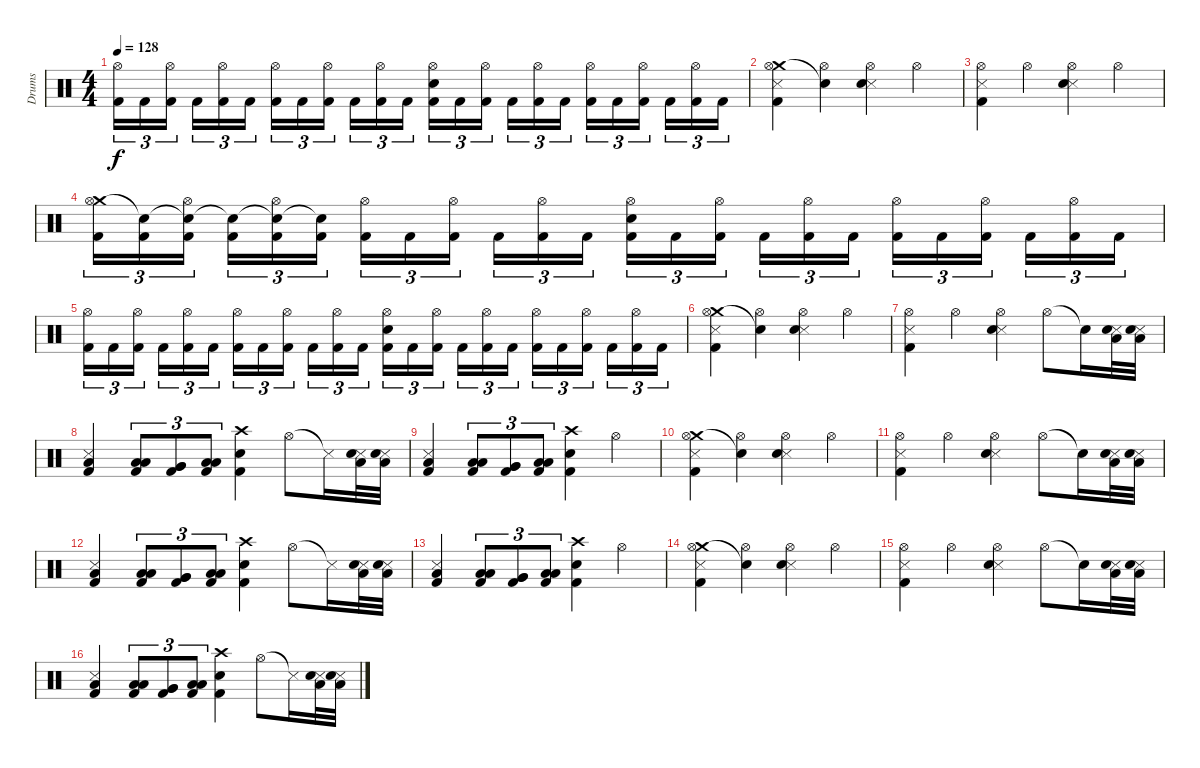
\track ("Drums" "Drums") {instrument percussion}
\staff {score}
\articulation defaults
\ts (4 4)
\tempo 128
\clef neutral
\ks c
("Hi-Hat (open)" "Kick (hit) 2").16{tu (3 2) dy f} "Kick (hit) 2".16{tu (3 2)} ("Hi-Hat (open)" "Kick (hit) 2").16{tu (3 2) beam splitsecondary} "Kick (hit) 2".16{tu (3 2)} ("Hi-Hat (open)" "Kick (hit) 2").16{tu (3 2)} "Kick (hit) 2".16{tu (3 2)} ("Hi-Hat (open)" "Kick (hit) 2").16{tu (3 2)} "Kick (hit) 2".16{tu (3 2)} ("Hi-Hat (open)" "Kick (hit) 2").16{tu (3 2) beam splitsecondary} "Kick (hit) 2".16{tu (3 2)} ("Hi-Hat (open)" "Kick (hit) 2").16{tu (3 2)} "Kick (hit) 2".16{tu (3 2)} ("Hi-Hat (open)" "Electric Snare (hit)" "Kick (hit) 2").16{tu (3 2)} "Kick (hit) 2".16{tu (3 2)} ("Hi-Hat (open)" "Kick (hit) 2").16{tu (3 2) beam splitsecondary} "Kick (hit) 2".16{tu (3 2)} ("Hi-Hat (open)" "Kick (hit) 2").16{tu (3 2)} "Kick (hit) 2".16{tu (3 2)} ("Hi-Hat (open)" "Kick (hit) 2").16{tu (3 2)} "Kick (hit) 2".16{tu (3 2)} ("Hi-Hat (open)" "Kick (hit) 2").16{tu (3 2) beam splitsecondary} "Kick (hit) 2".16{tu (3 2)} ("Hi-Hat (open)" "Kick (hit) 2").16{tu (3 2)} "Kick (hit) 2".16{tu (3 2)} |
("Crash medium (hit)" "Snare (side stick) 3" "Hi-Hat (open)" "Kick (hit) 2").4 ("Snare (hit)"{t} "Hi-Hat (open)").4 ("Snare (side stick) 3" "Hi-Hat (open)" "Electric Snare (hit)").4 "Hi-Hat (open)".4 |
("Snare (side stick) 3" "Hi-Hat (open)" "Kick (hit) 2").4 "Hi-Hat (open)".4 ("Snare (side stick) 3" "Hi-Hat (open)" "Electric Snare (hit)").4 "Hi-Hat (open)".4 |
("Crash medium (hit)" "Hi-Hat (open)" "Kick (hit) 2").16{tu (3 2)} ("Snare (hit)"{t} "Kick (hit) 2").16{tu (3 2)} ("Snare (hit)"{t} "Hi-Hat (open)" "Kick (hit) 2").16{tu (3 2) beam splitsecondary} ("Snare (hit)"{t} "Kick (hit) 2").16{tu (3 2)} ("Snare (hit)"{t} "Hi-Hat (open)" "Kick (hit) 2").16{tu (3 2)} ("Snare (hit)"{t} "Kick (hit) 2").16{tu (3 2)} ("Hi-Hat (open)" "Kick (hit) 2").16{tu (3 2)} "Kick (hit) 2".16{tu (3 2)} ("Hi-Hat (open)" "Kick (hit) 2").16{tu (3 2) beam splitsecondary} "Kick (hit) 2".16{tu (3 2)} ("Hi-Hat (open)" "Kick (hit) 2").16{tu (3 2)} "Kick (hit) 2".16{tu (3 2)} ("Hi-Hat (open)" "Electric Snare (hit)" "Kick (hit) 2").16{tu (3 2)} "Kick (hit) 2".16{tu (3 2)} ("Hi-Hat (open)" "Kick (hit) 2").16{tu (3 2) beam splitsecondary} "Kick (hit) 2".16{tu (3 2)} ("Hi-Hat (open)" "Kick (hit) 2").16{tu (3 2)} "Kick (hit) 2".16{tu (3 2)} ("Hi-Hat (open)" "Kick (hit) 2").16{tu (3 2)} "Kick (hit) 2".16{tu (3 2)} ("Hi-Hat (open)" "Kick (hit) 2").16{tu (3 2) beam splitsecondary} "Kick (hit) 2".16{tu (3 2)} ("Hi-Hat (open)" "Kick (hit) 2").16{tu (3 2)} "Kick (hit) 2".16{tu (3 2)} |
("Hi-Hat (open)" "Kick (hit) 2").16{tu (3 2)} "Kick (hit) 2".16{tu (3 2)} ("Hi-Hat (open)" "Kick (hit) 2").16{tu (3 2) beam splitsecondary} "Kick (hit) 2".16{tu (3 2)} ("Hi-Hat (open)" "Kick (hit) 2").16{tu (3 2)} "Kick (hit) 2".16{tu (3 2)} ("Hi-Hat (open)" "Kick (hit) 2").16{tu (3 2)} "Kick (hit) 2".16{tu (3 2)} ("Hi-Hat (open)" "Kick (hit) 2").16{tu (3 2) beam splitsecondary} "Kick (hit) 2".16{tu (3 2)} ("Hi-Hat (open)" "Kick (hit) 2").16{tu (3 2)} "Kick (hit) 2".16{tu (3 2)} ("Hi-Hat (open)" "Electric Snare (hit)" "Kick (hit) 2").16{tu (3 2)} "Kick (hit) 2".16{tu (3 2)} ("Hi-Hat (open)" "Kick (hit) 2").16{tu (3 2) beam splitsecondary} "Kick (hit) 2".16{tu (3 2)} ("Hi-Hat (open)" "Kick (hit) 2").16{tu (3 2)} "Kick (hit) 2".16{tu (3 2)} ("Hi-Hat (open)" "Kick (hit) 2").16{tu (3 2)} "Kick (hit) 2".16{tu (3 2)} ("Hi-Hat (open)" "Kick (hit) 2").16{tu (3 2) beam splitsecondary} "Kick (hit) 2".16{tu (3 2)} ("Hi-Hat (open)" "Kick (hit) 2").16{tu (3 2)} "Kick (hit) 2".16{tu (3 2)} |
("Crash medium (hit)" "Snare (side stick) 3" "Hi-Hat (open)" "Kick (hit) 2").4 ("Snare (hit)"{t} "Hi-Hat (open)").4 ("Snare (side stick) 3" "Hi-Hat (open)" "Electric Snare (hit)").4 "Hi-Hat (open)".4 |
("Snare (side stick) 3" "Hi-Hat (open)" "Kick (hit) 2").4 "Hi-Hat (open)".4 ("Snare (side stick) 3" "Hi-Hat (open)" "Electric Snare (hit)").4 "Hi-Hat (open)".8 "Snare (hit)"{t}.16 ("Snare (side stick) 3" "Low Floor Tom (hit)" "Electric Snare (hit)").32 ("Snare (side stick) 3" "Low Floor Tom (hit)" "Electric Snare (hit)").32 |
("Snare (side stick) 3" "Low Floor Tom (hit)" "Kick (hit) 2").4 ("Low Tom (hit)" "Low Tom (hit)" "Kick (hit) 2").8{tu (3 2)} ("Very Low Tom (hit)" "Very Low Tom (hit)" "Kick (hit) 2").8{tu (3 2)} ("Low Floor Tom (hit)" "Low Floor Tom (hit)" "Kick (hit) 2").8{tu (3 2)} ("Crash high (hit)" "Electric Snare (hit)" "Kick (hit) 2").4 "Hi-Hat (open)".8 "Snare (side stick) 3"{t}.16 ("Snare (side stick) 3" "Low Floor Tom (hit)" "Electric Snare (hit)").32 ("Snare (side stick) 3" "Low Floor Tom (hit)" "Electric Snare (hit)").32 |
("Snare (side stick) 3" "Low Floor Tom (hit)" "Kick (hit) 2").4 ("Low Tom (hit)" "Low Tom (hit)" "Kick (hit) 2").8{tu (3 2)} ("Very Low Tom (hit)" "Very Low Tom (hit)" "Kick (hit) 2").8{tu (3 2)} ("Low Floor Tom (hit)" "Low Floor Tom (hit)" "Kick (hit) 2").8{tu (3 2)} ("Crash high (hit)" "Electric Snare (hit)" "Kick (hit) 2").4 "Hi-Hat (open)".4 |
("Crash medium (hit)" "Snare (side stick) 3" "Hi-Hat (open)" "Kick (hit) 2").4 ("Snare (hit)"{t} "Hi-Hat (open)").4 ("Snare (side stick) 3" "Hi-Hat (open)" "Electric Snare (hit)").4 "Hi-Hat (open)".4 |
("Snare (side stick) 3" "Hi-Hat (open)" "Kick (hit) 2").4 "Hi-Hat (open)".4 ("Snare (side stick) 3" "Hi-Hat (open)" "Electric Snare (hit)").4 "Hi-Hat (open)".8 "Snare (hit)"{t}.16 ("Snare (side stick) 3" "Low Floor Tom (hit)" "Electric Snare (hit)").32 ("Snare (side stick) 3" "Low Floor Tom (hit)" "Electric Snare (hit)").32 |
("Snare (side stick) 3" "Low Floor Tom (hit)" "Kick (hit) 2").4 ("Low Tom (hit)" "Low Tom (hit)" "Kick (hit) 2").8{tu (3 2)} ("Very Low Tom (hit)" "Very Low Tom (hit)" "Kick (hit) 2").8{tu (3 2)} ("Low Floor Tom (hit)" "Low Floor Tom (hit)" "Kick (hit) 2").8{tu (3 2)} ("Crash high (hit)" "Electric Snare (hit)" "Kick (hit) 2").4 "Hi-Hat (open)".8 "Snare (side stick) 3"{t}.16 ("Snare (side stick) 3" "Low Floor Tom (hit)" "Electric Snare (hit)").32 ("Snare (side stick) 3" "Low Floor Tom (hit)" "Electric Snare (hit)").32 |
("Snare (side stick) 3" "Low Floor Tom (hit)" "Kick (hit) 2").4 ("Low Tom (hit)" "Low Tom (hit)" "Kick (hit) 2").8{tu (3 2)} ("Very Low Tom (hit)" "Very Low Tom (hit)" "Kick (hit) 2").8{tu (3 2)} ("Low Floor Tom (hit)" "Low Floor Tom (hit)" "Kick (hit) 2").8{tu (3 2)} ("Crash high (hit)" "Electric Snare (hit)" "Kick (hit) 2").4 "Hi-Hat (open)".4 |
("Crash medium (hit)" "Snare (side stick) 3" "Hi-Hat (open)" "Kick (hit) 2").4 ("Snare (hit)"{t} "Hi-Hat (open)").4 ("Snare (side stick) 3" "Hi-Hat (open)" "Electric Snare (hit)").4 "Hi-Hat (open)".4 |
("Snare (side stick) 3" "Hi-Hat (open)" "Kick (hit) 2").4 "Hi-Hat (open)".4 ("Snare (side stick) 3" "Hi-Hat (open)" "Electric Snare (hit)").4 "Hi-Hat (open)".8 "Snare (hit)"{t}.16 ("Snare (side stick) 3" "Low Floor Tom (hit)" "Electric Snare (hit)").32 ("Snare (side stick) 3" "Low Floor Tom (hit)" "Electric Snare (hit)").32 |
("Snare (side stick) 3" "Low Floor Tom (hit)" "Kick (hit) 2").4 ("Low Tom (hit)" "Low Tom (hit)" "Kick (hit) 2").8{tu (3 2)} ("Very Low Tom (hit)" "Very Low Tom (hit)" "Kick (hit) 2").8{tu (3 2)} ("Low Floor Tom (hit)" "Low Floor Tom (hit)" "Kick (hit) 2").8{tu (3 2)} ("Crash high (hit)" "Electric Snare (hit)" "Kick (hit) 2").4 "Hi-Hat (open)".8 "Snare (side stick) 3"{t}.16 ("Snare (side stick) 3" "Low Floor Tom (hit)" "Electric Snare (hit)").32 ("Snare (side stick) 3" "Low Floor Tom (hit)" "Electric Snare (hit)").32
